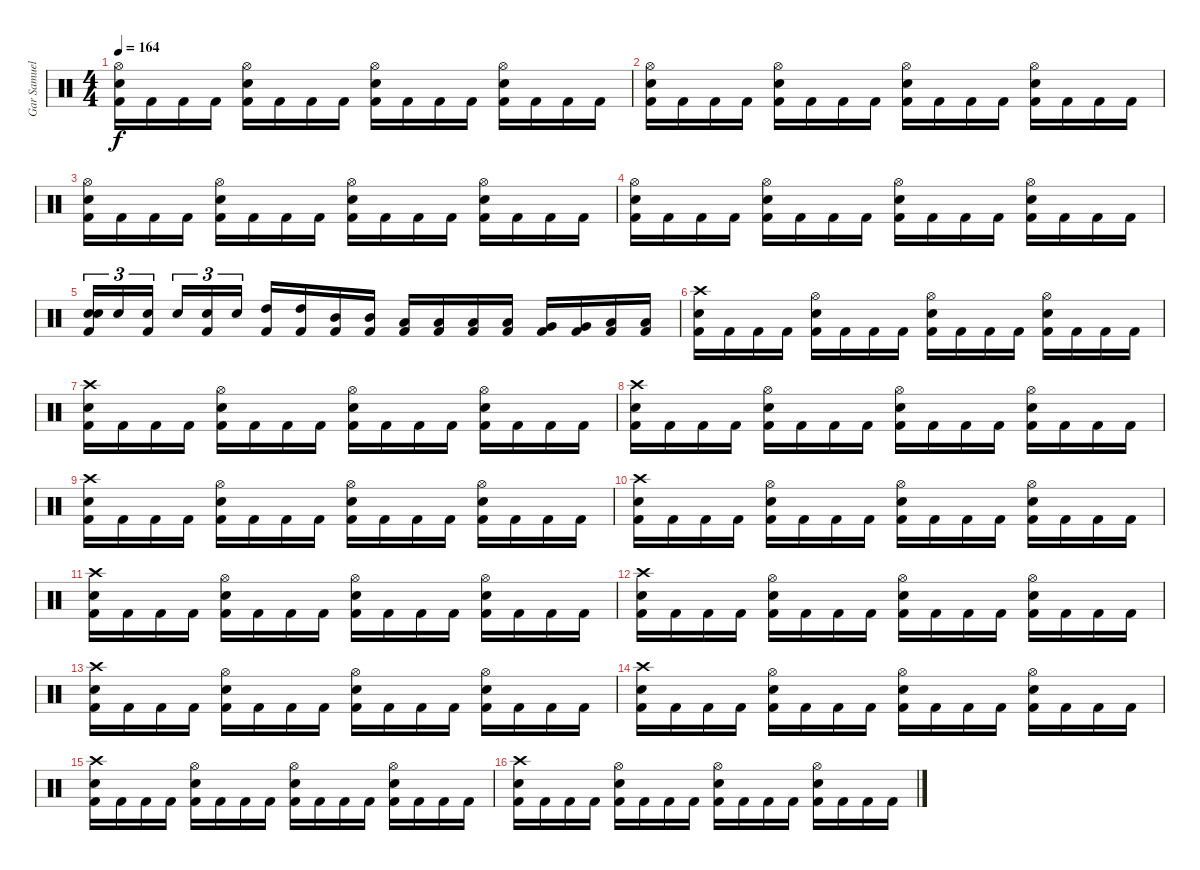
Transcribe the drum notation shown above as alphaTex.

\track ("Gar Samuelson (Drums)" "Gar Samuel") {instrument percussion}
\staff {score}
\articulation defaults
\ts (4 4)
\tempo 164
\clef neutral
\ks c
("Hi-Hat (open)" "Electric Snare (hit)" "Kick (hit) 2").16{dy f} "Kick (hit) 2".16 "Kick (hit) 2".16 "Kick (hit) 2".16 ("Hi-Hat (open)" "Electric Snare (hit)" "Kick (hit) 2").16 "Kick (hit) 2".16 "Kick (hit) 2".16 "Kick (hit) 2".16 ("Hi-Hat (open)" "Electric Snare (hit)" "Kick (hit) 2").16 "Kick (hit) 2".16 "Kick (hit) 2".16 "Kick (hit) 2".16 ("Hi-Hat (open)" "Electric Snare (hit)" "Kick (hit) 2").16 "Kick (hit) 2".16 "Kick (hit) 2".16 "Kick (hit) 2".16 |
("Hi-Hat (open)" "Electric Snare (hit)" "Kick (hit) 2").16 "Kick (hit) 2".16 "Kick (hit) 2".16 "Kick (hit) 2".16 ("Hi-Hat (open)" "Electric Snare (hit)" "Kick (hit) 2").16 "Kick (hit) 2".16 "Kick (hit) 2".16 "Kick (hit) 2".16 ("Hi-Hat (open)" "Electric Snare (hit)" "Kick (hit) 2").16 "Kick (hit) 2".16 "Kick (hit) 2".16 "Kick (hit) 2".16 ("Hi-Hat (open)" "Electric Snare (hit)" "Kick (hit) 2").16 "Kick (hit) 2".16 "Kick (hit) 2".16 "Kick (hit) 2".16 |
("Hi-Hat (open)" "Electric Snare (hit)" "Kick (hit) 2").16 "Kick (hit) 2".16 "Kick (hit) 2".16 "Kick (hit) 2".16 ("Hi-Hat (open)" "Electric Snare (hit)" "Kick (hit) 2").16 "Kick (hit) 2".16 "Kick (hit) 2".16 "Kick (hit) 2".16 ("Hi-Hat (open)" "Electric Snare (hit)" "Kick (hit) 2").16 "Kick (hit) 2".16 "Kick (hit) 2".16 "Kick (hit) 2".16 ("Hi-Hat (open)" "Electric Snare (hit)" "Kick (hit) 2").16 "Kick (hit) 2".16 "Kick (hit) 2".16 "Kick (hit) 2".16 |
("Hi-Hat (open)" "Electric Snare (hit)" "Kick (hit) 2").16 "Kick (hit) 2".16 "Kick (hit) 2".16 "Kick (hit) 2".16 ("Hi-Hat (open)" "Electric Snare (hit)" "Kick (hit) 2").16 "Kick (hit) 2".16 "Kick (hit) 2".16 "Kick (hit) 2".16 ("Hi-Hat (open)" "Electric Snare (hit)" "Kick (hit) 2").16 "Kick (hit) 2".16 "Kick (hit) 2".16 "Kick (hit) 2".16 ("Hi-Hat (open)" "Electric Snare (hit)" "Kick (hit) 2").16 "Kick (hit) 2".16 "Kick (hit) 2".16 "Kick (hit) 2".16 |
("Electric Snare (hit)" "Electric Snare (hit)" "Kick (hit) 2").16{tu (3 2)} "Electric Snare (hit)".16{tu (3 2)} ("Electric Snare (hit)" "Kick (hit) 2").16{tu (3 2)} "Electric Snare (hit)".16{tu (3 2)} ("Electric Snare (hit)" "Kick (hit) 2").16{tu (3 2)} "Electric Snare (hit)".16{tu (3 2)} ("High Tom (hit)" "Kick (hit) 2").16 ("High Tom (hit)" "Kick (hit) 2").16 ("Mid Tom (hit)" "Kick (hit) 2").16 ("Mid Tom (hit)" "Kick (hit) 2").16 ("Low Tom (hit)" "Kick (hit) 2").16 ("Low Tom (hit)" "Kick (hit) 2").16 ("Low Tom (hit)" "Kick (hit) 2").16 ("Low Tom (hit)" "Kick (hit) 2").16 ("Very Low Tom (hit)" "Kick (hit) 2").16 ("Very Low Tom (hit)" "Kick (hit) 2").16 ("Low Floor Tom (hit)" "Kick (hit) 2").16 ("Low Floor Tom (hit)" "Kick (hit) 2").16 |
("Crash high (hit)" "Electric Snare (hit)" "Kick (hit) 2").16 "Kick (hit) 2".16 "Kick (hit) 2".16 "Kick (hit) 2".16 ("Hi-Hat (open)" "Electric Snare (hit)" "Kick (hit) 2").16 "Kick (hit) 2".16 "Kick (hit) 2".16 "Kick (hit) 2".16 ("Hi-Hat (open)" "Electric Snare (hit)" "Kick (hit) 2").16 "Kick (hit) 2".16 "Kick (hit) 2".16 "Kick (hit) 2".16 ("Hi-Hat (open)" "Electric Snare (hit)" "Kick (hit) 2").16 "Kick (hit) 2".16 "Kick (hit) 2".16 "Kick (hit) 2".16 |
("Crash high (hit)" "Electric Snare (hit)" "Kick (hit) 2").16 "Kick (hit) 2".16 "Kick (hit) 2".16 "Kick (hit) 2".16 ("Hi-Hat (open)" "Electric Snare (hit)" "Kick (hit) 2").16 "Kick (hit) 2".16 "Kick (hit) 2".16 "Kick (hit) 2".16 ("Hi-Hat (open)" "Electric Snare (hit)" "Kick (hit) 2").16 "Kick (hit) 2".16 "Kick (hit) 2".16 "Kick (hit) 2".16 ("Hi-Hat (open)" "Electric Snare (hit)" "Kick (hit) 2").16 "Kick (hit) 2".16 "Kick (hit) 2".16 "Kick (hit) 2".16 |
("Crash high (hit)" "Electric Snare (hit)" "Kick (hit) 2").16 "Kick (hit) 2".16 "Kick (hit) 2".16 "Kick (hit) 2".16 ("Hi-Hat (open)" "Electric Snare (hit)" "Kick (hit) 2").16 "Kick (hit) 2".16 "Kick (hit) 2".16 "Kick (hit) 2".16 ("Hi-Hat (open)" "Electric Snare (hit)" "Kick (hit) 2").16 "Kick (hit) 2".16 "Kick (hit) 2".16 "Kick (hit) 2".16 ("Hi-Hat (open)" "Electric Snare (hit)" "Kick (hit) 2").16 "Kick (hit) 2".16 "Kick (hit) 2".16 "Kick (hit) 2".16 |
("Crash high (hit)" "Electric Snare (hit)" "Kick (hit) 2").16 "Kick (hit) 2".16 "Kick (hit) 2".16 "Kick (hit) 2".16 ("Hi-Hat (open)" "Electric Snare (hit)" "Kick (hit) 2").16 "Kick (hit) 2".16 "Kick (hit) 2".16 "Kick (hit) 2".16 ("Hi-Hat (open)" "Electric Snare (hit)" "Kick (hit) 2").16 "Kick (hit) 2".16 "Kick (hit) 2".16 "Kick (hit) 2".16 ("Hi-Hat (open)" "Electric Snare (hit)" "Kick (hit) 2").16 "Kick (hit) 2".16 "Kick (hit) 2".16 "Kick (hit) 2".16 |
("Crash high (hit)" "Electric Snare (hit)" "Kick (hit) 2").16 "Kick (hit) 2".16 "Kick (hit) 2".16 "Kick (hit) 2".16 ("Hi-Hat (open)" "Electric Snare (hit)" "Kick (hit) 2").16 "Kick (hit) 2".16 "Kick (hit) 2".16 "Kick (hit) 2".16 ("Hi-Hat (open)" "Electric Snare (hit)" "Kick (hit) 2").16 "Kick (hit) 2".16 "Kick (hit) 2".16 "Kick (hit) 2".16 ("Hi-Hat (open)" "Electric Snare (hit)" "Kick (hit) 2").16 "Kick (hit) 2".16 "Kick (hit) 2".16 "Kick (hit) 2".16 |
("Crash high (hit)" "Electric Snare (hit)" "Kick (hit) 2").16 "Kick (hit) 2".16 "Kick (hit) 2".16 "Kick (hit) 2".16 ("Hi-Hat (open)" "Electric Snare (hit)" "Kick (hit) 2").16 "Kick (hit) 2".16 "Kick (hit) 2".16 "Kick (hit) 2".16 ("Hi-Hat (open)" "Electric Snare (hit)" "Kick (hit) 2").16 "Kick (hit) 2".16 "Kick (hit) 2".16 "Kick (hit) 2".16 ("Hi-Hat (open)" "Electric Snare (hit)" "Kick (hit) 2").16 "Kick (hit) 2".16 "Kick (hit) 2".16 "Kick (hit) 2".16 |
("Crash high (hit)" "Electric Snare (hit)" "Kick (hit) 2").16 "Kick (hit) 2".16 "Kick (hit) 2".16 "Kick (hit) 2".16 ("Hi-Hat (open)" "Electric Snare (hit)" "Kick (hit) 2").16 "Kick (hit) 2".16 "Kick (hit) 2".16 "Kick (hit) 2".16 ("Hi-Hat (open)" "Electric Snare (hit)" "Kick (hit) 2").16 "Kick (hit) 2".16 "Kick (hit) 2".16 "Kick (hit) 2".16 ("Hi-Hat (open)" "Electric Snare (hit)" "Kick (hit) 2").16 "Kick (hit) 2".16 "Kick (hit) 2".16 "Kick (hit) 2".16 |
("Crash high (hit)" "Electric Snare (hit)" "Kick (hit) 2").16 "Kick (hit) 2".16 "Kick (hit) 2".16 "Kick (hit) 2".16 ("Hi-Hat (open)" "Electric Snare (hit)" "Kick (hit) 2").16 "Kick (hit) 2".16 "Kick (hit) 2".16 "Kick (hit) 2".16 ("Hi-Hat (open)" "Electric Snare (hit)" "Kick (hit) 2").16 "Kick (hit) 2".16 "Kick (hit) 2".16 "Kick (hit) 2".16 ("Hi-Hat (open)" "Electric Snare (hit)" "Kick (hit) 2").16 "Kick (hit) 2".16 "Kick (hit) 2".16 "Kick (hit) 2".16 |
("Crash high (hit)" "Electric Snare (hit)" "Kick (hit) 2").16 "Kick (hit) 2".16 "Kick (hit) 2".16 "Kick (hit) 2".16 ("Hi-Hat (open)" "Electric Snare (hit)" "Kick (hit) 2").16 "Kick (hit) 2".16 "Kick (hit) 2".16 "Kick (hit) 2".16 ("Hi-Hat (open)" "Electric Snare (hit)" "Kick (hit) 2").16 "Kick (hit) 2".16 "Kick (hit) 2".16 "Kick (hit) 2".16 ("Hi-Hat (open)" "Electric Snare (hit)" "Kick (hit) 2").16 "Kick (hit) 2".16 "Kick (hit) 2".16 "Kick (hit) 2".16 |
("Crash high (hit)" "Electric Snare (hit)" "Kick (hit) 2").16 "Kick (hit) 2".16 "Kick (hit) 2".16 "Kick (hit) 2".16 ("Hi-Hat (open)" "Electric Snare (hit)" "Kick (hit) 2").16 "Kick (hit) 2".16 "Kick (hit) 2".16 "Kick (hit) 2".16 ("Hi-Hat (open)" "Electric Snare (hit)" "Kick (hit) 2").16 "Kick (hit) 2".16 "Kick (hit) 2".16 "Kick (hit) 2".16 ("Hi-Hat (open)" "Electric Snare (hit)" "Kick (hit) 2").16 "Kick (hit) 2".16 "Kick (hit) 2".16 "Kick (hit) 2".16 |
("Crash high (hit)" "Electric Snare (hit)" "Kick (hit) 2").16 "Kick (hit) 2".16 "Kick (hit) 2".16 "Kick (hit) 2".16 ("Hi-Hat (open)" "Electric Snare (hit)" "Kick (hit) 2").16 "Kick (hit) 2".16 "Kick (hit) 2".16 "Kick (hit) 2".16 ("Hi-Hat (open)" "Electric Snare (hit)" "Kick (hit) 2").16 "Kick (hit) 2".16 "Kick (hit) 2".16 "Kick (hit) 2".16 ("Hi-Hat (open)" "Electric Snare (hit)" "Kick (hit) 2").16 "Kick (hit) 2".16 "Kick (hit) 2".16 "Kick (hit) 2".16
